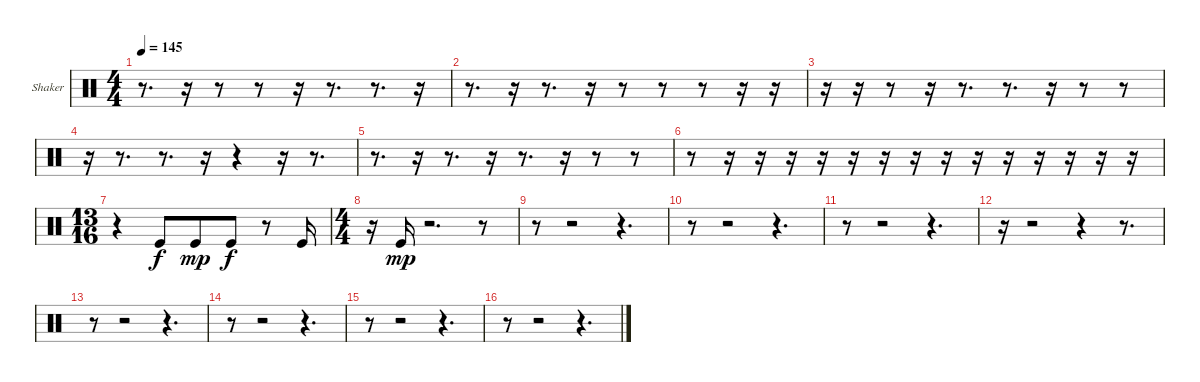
\bracketExtendMode groupsimilarinstruments
\firstSystemTrackNameOrientation horizontal
\otherSystemsTrackNameOrientation horizontal
\track ("Shaker" "Shaker") {instrument percussion}
\staff {score}
\articulation defaults
\ts (4 4)
\tempo 145
\clef neutral
\ks c
r.8{d dy f} r.16 r.8 r.8 r.16 r.8{d} r.8{d} r.16 |
r.8{d} r.16 r.8{d} r.16 r.8 r.8 r.8 r.16 r.16 |
r.16 r.16 r.8 r.16 r.8{d} r.8{d} r.16 r.8 r.8 |
r.16 r.8{d} r.8{d} r.16 r.4 r.16 r.8{d} |
r.8{d} r.16 r.8{d} r.16 r.8{d} r.16 r.8 r.8 |
r.8 r.16 r.16 r.16 r.16 r.16 r.16 r.16 r.16 r.16 r.16 r.16 r.16 r.16 r.16 |
\ts (13 16)
\beaming (8 6)
r.4 "Kick (hit)".8 "Kick (hit)".8{dy mp} "Kick (hit)".8{dy f} r.8 "Kick (hit)".16 |
\ts (4 4)
\beaming (8 2 2 2 2)
r.16 "Kick (hit)".16{dy mp} r.2{d} r.8 |
r.8 r.2 r.4{d} |
r.8 r.2 r.4{d} |
r.8 r.2 r.4{d} |
r.16 r.2 r.4 r.8{d} |
r.8 r.2 r.4{d} |
r.8 r.2 r.4{d} |
r.8 r.2 r.4{d} |
r.8 r.2 r.4{d}
